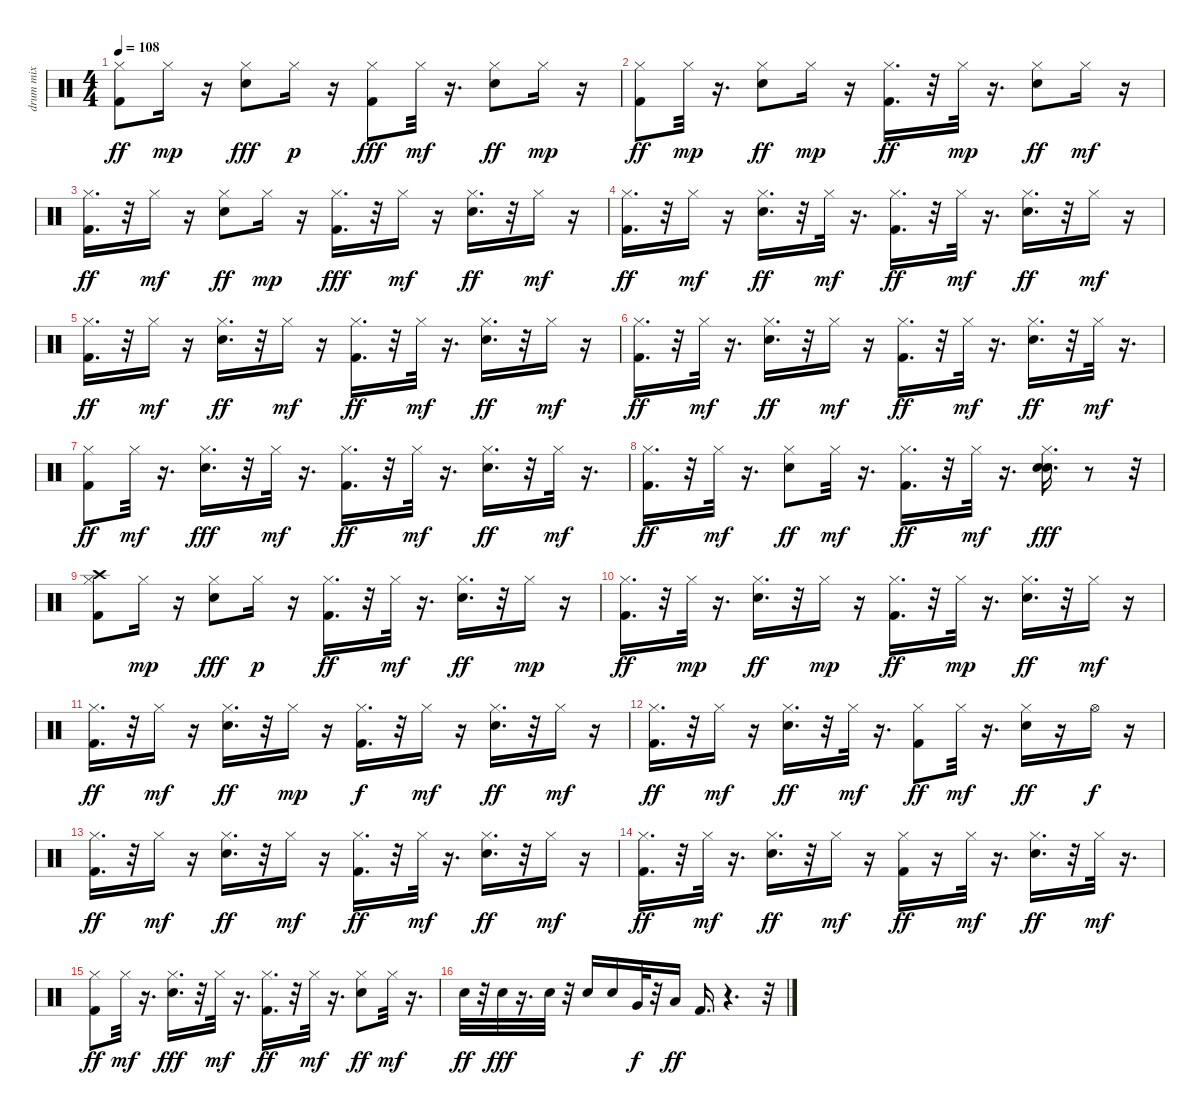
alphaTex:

\track ("drum mix" "drum mix") {instrument percussion}
\staff {score}
\articulation defaults
\ts (4 4)
\tempo 108
\clef neutral
\ks c
("Kick (hit) 2" "Hi-Hat (closed)").8{dy ff} "Hi-Hat (closed)".16{dy mp} r.16 ("Electric Snare (hit)" "Hi-Hat (closed)").8{dy fff} "Hi-Hat (closed)".16{dy p} r.16 ("Kick (hit) 2" "Hi-Hat (closed)").8{dy fff} "Hi-Hat (closed)".32{dy mf} r.16{d} ("Electric Snare (hit)" "Hi-Hat (closed)").8{dy ff} "Hi-Hat (closed)".16{dy mp} r.16 |
("Kick (hit) 2" "Hi-Hat (closed)").8{dy ff} "Hi-Hat (closed)".32{dy mp} r.16{d} ("Electric Snare (hit)" "Hi-Hat (closed)").8{dy ff} "Hi-Hat (closed)".16{dy mp} r.16 ("Kick (hit) 2" "Hi-Hat (closed)").16{d dy ff} r.32 "Hi-Hat (closed)".32{dy mp} r.16{d} ("Electric Snare (hit)" "Hi-Hat (closed)").8{dy ff} "Hi-Hat (closed)".16{dy mf} r.16 |
("Kick (hit) 2" "Hi-Hat (closed)").16{d dy ff} r.32 "Hi-Hat (closed)".16{dy mf} r.16 ("Electric Snare (hit)" "Hi-Hat (closed)").8{dy ff} "Hi-Hat (closed)".16{dy mp} r.16 ("Kick (hit) 2" "Hi-Hat (closed)").16{d dy fff} r.32 "Hi-Hat (closed)".16{dy mf} r.16 ("Electric Snare (hit)" "Hi-Hat (closed)").16{d dy ff} r.32 "Hi-Hat (closed)".16{dy mf} r.16 |
("Kick (hit) 2" "Hi-Hat (closed)").16{d dy ff} r.32 "Hi-Hat (closed)".16{dy mf} r.16 ("Electric Snare (hit)" "Hi-Hat (closed)").16{d dy ff} r.32 "Hi-Hat (closed)".32{dy mf} r.16{d} ("Kick (hit) 2" "Hi-Hat (closed)").16{d dy ff} r.32 "Hi-Hat (closed)".32{dy mf} r.16{d} ("Electric Snare (hit)" "Hi-Hat (closed)").16{d dy ff} r.32 "Hi-Hat (closed)".16{dy mf} r.16 |
("Kick (hit) 2" "Hi-Hat (closed)").16{d dy ff} r.32 "Hi-Hat (closed)".16{dy mf} r.16 ("Electric Snare (hit)" "Hi-Hat (closed)").16{d dy ff} r.32 "Hi-Hat (closed)".16{dy mf} r.16 ("Kick (hit) 2" "Hi-Hat (closed)").16{d dy ff} r.32 "Hi-Hat (closed)".32{dy mf} r.16{d} ("Electric Snare (hit)" "Hi-Hat (closed)").16{d dy ff} r.32 "Hi-Hat (closed)".16{dy mf} r.16 |
("Kick (hit) 2" "Hi-Hat (closed)").16{d dy ff} r.32 "Hi-Hat (closed)".32{dy mf} r.16{d} ("Electric Snare (hit)" "Hi-Hat (closed)").16{d dy ff} r.32 "Hi-Hat (closed)".16{dy mf} r.16 ("Kick (hit) 2" "Hi-Hat (closed)").16{d dy ff} r.32 "Hi-Hat (closed)".32{dy mf} r.16{d} ("Electric Snare (hit)" "Hi-Hat (closed)").16{d dy ff} r.32 "Hi-Hat (closed)".32{dy mf} r.16{d} |
("Kick (hit) 2" "Hi-Hat (closed)").8{dy ff} "Hi-Hat (closed)".32{dy mf} r.16{d} ("Electric Snare (hit)" "Hi-Hat (closed)").16{d dy fff} r.32 "Hi-Hat (closed)".32{dy mf} r.16{d} ("Kick (hit) 2" "Hi-Hat (closed)").16{d dy ff} r.32 "Hi-Hat (closed)".32{dy mf} r.16{d} ("Electric Snare (hit)" "Hi-Hat (closed)").16{d dy ff} r.32 "Hi-Hat (closed)".32{dy mf} r.16{d} |
("Kick (hit) 2" "Hi-Hat (closed)").16{d dy ff} r.32 "Hi-Hat (closed)".32{dy mf} r.16{d} ("Electric Snare (hit)" "Hi-Hat (closed)").8{dy ff} "Hi-Hat (closed)".32{dy mf} r.16{d} ("Kick (hit) 2" "Hi-Hat (closed)").16{d dy ff} r.32 "Hi-Hat (closed)".32{dy mf} r.16{d} ("Electric Snare (hit)" "Hi-Hat (closed)" "Electric Snare (hit)").16{d dy fff} r.8 r.32 |
("Kick (hit) 2" "Hi-Hat (closed)" "Crash high (hit)").8 "Hi-Hat (closed)".16{dy mp} r.16 ("Electric Snare (hit)" "Hi-Hat (closed)").8{dy fff} "Hi-Hat (closed)".16{dy p} r.16 ("Kick (hit) 2" "Hi-Hat (closed)").16{d dy ff} r.32 "Hi-Hat (closed)".32{dy mf} r.16{d} ("Electric Snare (hit)" "Hi-Hat (closed)").16{d dy ff} r.32 "Hi-Hat (closed)".16{dy mp} r.16 |
("Kick (hit) 2" "Hi-Hat (closed)").16{d dy ff} r.32 "Hi-Hat (closed)".32{dy mp} r.16{d} ("Electric Snare (hit)" "Hi-Hat (closed)").16{d dy ff} r.32 "Hi-Hat (closed)".16{dy mp} r.16 ("Kick (hit) 2" "Hi-Hat (closed)").16{d dy ff} r.32 "Hi-Hat (closed)".32{dy mp} r.16{d} ("Electric Snare (hit)" "Hi-Hat (closed)").16{d dy ff} r.32 "Hi-Hat (closed)".16{dy mf} r.16 |
("Kick (hit) 2" "Hi-Hat (closed)").16{d dy ff} r.32 "Hi-Hat (closed)".16{dy mf} r.16 ("Electric Snare (hit)" "Hi-Hat (closed)").16{d dy ff} r.32 "Hi-Hat (closed)".16{dy mp} r.16 ("Kick (hit) 2" "Hi-Hat (closed)").16{d dy f} r.32 "Hi-Hat (closed)".16{dy mf} r.16 ("Electric Snare (hit)" "Hi-Hat (closed)").16{d dy ff} r.32 "Hi-Hat (closed)".16{dy mf} r.16 |
("Kick (hit) 2" "Hi-Hat (closed)").16{d dy ff} r.32 "Hi-Hat (closed)".16{dy mf} r.16 ("Electric Snare (hit)" "Hi-Hat (closed)").16{d dy ff} r.32 "Hi-Hat (closed)".32{dy mf} r.16{d} ("Kick (hit) 2" "Hi-Hat (closed)").8{dy ff} "Hi-Hat (closed)".32{dy mf} r.16{d} ("Electric Snare (hit)" "Hi-Hat (closed)").16{dy ff} r.16 "Hi-Hat (open)".16{dy f} r.16 |
("Kick (hit) 2" "Hi-Hat (closed)").16{d dy ff} r.32 "Hi-Hat (closed)".16{dy mf} r.16 ("Electric Snare (hit)" "Hi-Hat (closed)").16{d dy ff} r.32 "Hi-Hat (closed)".16{dy mf} r.16 ("Kick (hit) 2" "Hi-Hat (closed)").16{d dy ff} r.32 "Hi-Hat (closed)".32{dy mf} r.16{d} ("Electric Snare (hit)" "Hi-Hat (closed)").16{d dy ff} r.32 "Hi-Hat (closed)".16{dy mf} r.16 |
("Kick (hit) 2" "Hi-Hat (closed)").16{d dy ff} r.32 "Hi-Hat (closed)".32{dy mf} r.16{d} ("Electric Snare (hit)" "Hi-Hat (closed)").16{d dy ff} r.32 "Hi-Hat (closed)".16{dy mf} r.16 ("Kick (hit) 2" "Hi-Hat (closed)").16{dy ff} r.16 "Hi-Hat (closed)".32{dy mf} r.16{d} ("Electric Snare (hit)" "Hi-Hat (closed)").16{d dy ff} r.32 "Hi-Hat (closed)".32{dy mf} r.16{d} |
("Kick (hit) 2" "Hi-Hat (closed)").8{dy ff} "Hi-Hat (closed)".32{dy mf} r.16{d} ("Electric Snare (hit)" "Hi-Hat (closed)").16{d dy fff} r.32 "Hi-Hat (closed)".32{dy mf} r.16{d} ("Kick (hit) 2" "Hi-Hat (closed)").16{d dy ff} r.32 "Hi-Hat (closed)".32{dy mf} r.16{d} ("Electric Snare (hit)" "Hi-Hat (closed)").8{dy ff} "Hi-Hat (closed)".32{dy mf} r.16{d} |
"Electric Snare (hit)".32{dy ff} r.32 "Electric Snare (hit)".32{dy fff} r.16{d} "Electric Snare (hit)".32 r.32 "Electric Snare (hit)".16 "Electric Snare (hit)".16 "Very Low Tom (hit)".32{dy f} r.32 "Low Floor Tom (hit)".16{dy ff} "Kick (hit) 2".16{d} r.4{d} r.32
